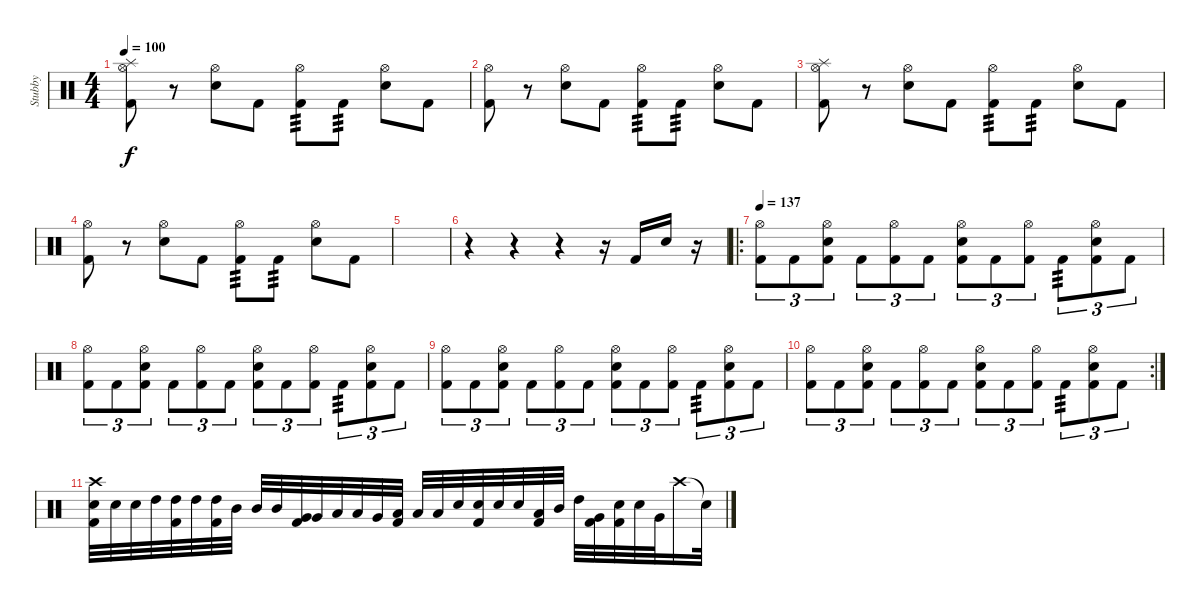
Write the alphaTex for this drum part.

\track ("Stubby" "Stubby") {instrument percussion}
\staff {score}
\articulation defaults
\ts (4 4)
\tempo 100
\clef neutral
\ks c
("Splash (hit)" "Hi-Hat (open)" "Kick (hit) 2").8{dy f} r.8 ("Hi-Hat (open)" "Electric Snare (hit)").8 "Kick (hit) 2".8 ("Hi-Hat (open)" "Kick (hit) 2").8{tp 3} "Kick (hit) 2".8{tp 3} ("Hi-Hat (open)" "Electric Snare (hit)").8 "Kick (hit) 2".8 |
("Hi-Hat (open)" "Kick (hit) 2").8 r.8 ("Hi-Hat (open)" "Electric Snare (hit)").8 "Kick (hit) 2".8 ("Hi-Hat (open)" "Kick (hit) 2").8{tp 3} "Kick (hit) 2".8{tp 3} ("Hi-Hat (open)" "Electric Snare (hit)").8 "Kick (hit) 2".8 |
("Splash (hit)" "Hi-Hat (open)" "Kick (hit) 2").8 r.8 ("Hi-Hat (open)" "Electric Snare (hit)").8 "Kick (hit) 2".8 ("Hi-Hat (open)" "Kick (hit) 2").8{tp 3} "Kick (hit) 2".8{tp 3} ("Hi-Hat (open)" "Electric Snare (hit)").8 "Kick (hit) 2".8 |
("Hi-Hat (open)" "Kick (hit) 2").8 r.8 ("Hi-Hat (open)" "Electric Snare (hit)").8 "Kick (hit) 2".8 ("Hi-Hat (open)" "Kick (hit) 2").8{tp 3} "Kick (hit) 2".8{tp 3} ("Hi-Hat (open)" "Electric Snare (hit)").8 "Kick (hit) 2".8 |
|
r.4 r.4 r.4 r.16 "Kick (hit) 2".16 "Electric Snare (hit)".16 r.16 |
\ro
\tempo 137
("Hi-Hat (open)" "Kick (hit) 2").8{tu (3 2)} "Kick (hit) 2".8{tu (3 2)} ("Hi-Hat (open)" "Electric Snare (hit)" "Kick (hit) 2").8{tu (3 2)} "Kick (hit) 2".8{tu (3 2)} ("Hi-Hat (open)" "Kick (hit) 2").8{tu (3 2)} "Kick (hit) 2".8{tu (3 2)} ("Hi-Hat (open)" "Electric Snare (hit)" "Kick (hit) 2").8{tu (3 2)} "Kick (hit) 2".8{tu (3 2)} ("Hi-Hat (open)" "Kick (hit) 2").8{tu (3 2)} "Kick (hit) 2".8{tu (3 2) tp 3} ("Hi-Hat (open)" "Electric Snare (hit)" "Kick (hit) 2").8{tu (3 2)} "Kick (hit) 2".8{tu (3 2)} |
("Hi-Hat (open)" "Kick (hit) 2").8{tu (3 2)} "Kick (hit) 2".8{tu (3 2)} ("Hi-Hat (open)" "Electric Snare (hit)" "Kick (hit) 2").8{tu (3 2)} "Kick (hit) 2".8{tu (3 2)} ("Hi-Hat (open)" "Kick (hit) 2").8{tu (3 2)} "Kick (hit) 2".8{tu (3 2)} ("Hi-Hat (open)" "Electric Snare (hit)" "Kick (hit) 2").8{tu (3 2)} "Kick (hit) 2".8{tu (3 2)} ("Hi-Hat (open)" "Kick (hit) 2").8{tu (3 2)} "Kick (hit) 2".8{tu (3 2) tp 3} ("Hi-Hat (open)" "Electric Snare (hit)" "Kick (hit) 2").8{tu (3 2)} "Kick (hit) 2".8{tu (3 2)} |
("Hi-Hat (open)" "Kick (hit) 2").8{tu (3 2)} "Kick (hit) 2".8{tu (3 2)} ("Hi-Hat (open)" "Electric Snare (hit)" "Kick (hit) 2").8{tu (3 2)} "Kick (hit) 2".8{tu (3 2)} ("Hi-Hat (open)" "Kick (hit) 2").8{tu (3 2)} "Kick (hit) 2".8{tu (3 2)} ("Hi-Hat (open)" "Electric Snare (hit)" "Kick (hit) 2").8{tu (3 2)} "Kick (hit) 2".8{tu (3 2)} ("Hi-Hat (open)" "Kick (hit) 2").8{tu (3 2)} "Kick (hit) 2".8{tu (3 2) tp 3} ("Hi-Hat (open)" "Electric Snare (hit)" "Kick (hit) 2").8{tu (3 2)} "Kick (hit) 2".8{tu (3 2)} |
\rc 2
("Hi-Hat (open)" "Kick (hit) 2").8{tu (3 2) balance 16} "Kick (hit) 2".8{tu (3 2)} ("Hi-Hat (open)" "Electric Snare (hit)" "Kick (hit) 2").8{tu (3 2)} "Kick (hit) 2".8{tu (3 2)} ("Hi-Hat (open)" "Kick (hit) 2").8{tu (3 2)} "Kick (hit) 2".8{tu (3 2)} ("Hi-Hat (open)" "Electric Snare (hit)" "Kick (hit) 2").8{tu (3 2)} "Kick (hit) 2".8{tu (3 2)} ("Hi-Hat (open)" "Kick (hit) 2").8{tu (3 2)} "Kick (hit) 2".8{tu (3 2) tp 3} ("Hi-Hat (open)" "Electric Snare (hit)" "Kick (hit) 2").8{tu (3 2)} "Kick (hit) 2".8{tu (3 2)} |
("Crash high (hit)" "Electric Snare (hit)" "Kick (hit) 2").32 "Electric Snare (hit)".32 "Electric Snare (hit)".32 "High Tom (hit)".32 ("High Tom (hit)" "Kick (hit) 2").32 "High Tom (hit)".32 ("High Tom (hit)" "Kick (hit) 2").32 "Mid Tom (hit)".32 "Mid Tom (hit)".32 "Mid Tom (hit)".32 ("Very Low Tom (hit)" "Kick (hit) 2").32 "Very Low Tom (hit)".32 "Low Tom (hit)".32 "Low Tom (hit)".32 "Very Low Tom (hit)".32 ("Low Floor Tom (hit)" "Kick (hit) 2").32 "Low Floor Tom (hit)".32 "Low Floor Tom (hit)".32 "Electric Snare (hit)".32 ("Electric Snare (hit)" "Kick (hit) 2").32 "Electric Snare (hit)".32 "Electric Snare (hit)".32 ("Low Tom (hit)" "Kick (hit) 2").32 "Mid Tom (hit)".32 "High Tom (hit)".32 ("Very Low Tom (hit)" "Kick (hit) 2").32 ("Electric Snare (hit)" "Kick (hit) 2").32 "Electric Snare (hit)".32 "Very Low Tom (hit)".32 "Crash high (hit)".16 "Snare (hit)"{t}.32
